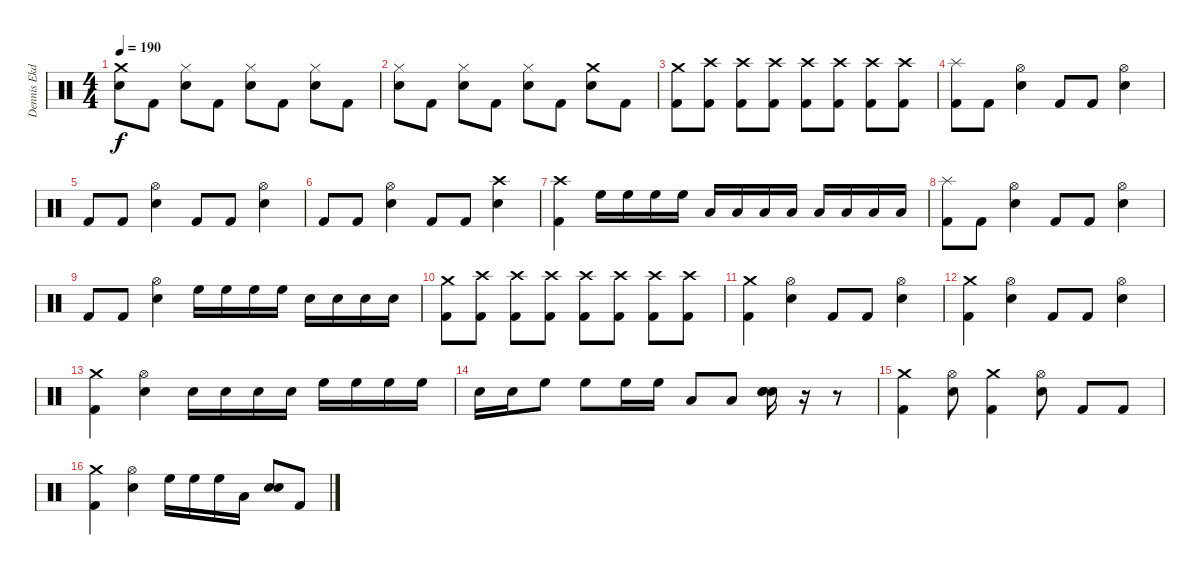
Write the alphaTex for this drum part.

\track ("Dennis Ekdahl" "Dennis Ekd") {instrument percussion}
\staff {score}
\articulation defaults
\ts (4 4)
\tempo 190
\clef neutral
\ks c
("Crash medium (hit)" "Snare (hit) 2").8{dy f} "Kick (hit) 2".8 ("Hi-Hat (closed)" "Snare (hit) 2").8 "Kick (hit) 2".8 ("Hi-Hat (closed)" "Snare (hit) 2").8 "Kick (hit) 2".8 ("Hi-Hat (closed)" "Snare (hit) 2").8 "Kick (hit) 2".8 |
("Hi-Hat (closed)" "Snare (hit) 2").8 "Kick (hit) 2".8 ("Hi-Hat (closed)" "Snare (hit) 2").8 "Kick (hit) 2".8 ("Hi-Hat (closed)" "Snare (hit) 2").8 "Kick (hit) 2".8 ("Crash medium (hit)" "Snare (hit) 2").8 "Kick (hit) 2".8 |
("Crash medium (hit)" "Kick (hit) 2").8 ("Crash high (hit)" "Kick (hit) 2").8 ("Crash high (hit)" "Kick (hit) 2").8 ("Crash high (hit)" "Kick (hit) 2").8 ("Crash high (hit)" "Kick (hit) 2").8 ("Crash high (hit)" "Kick (hit) 2").8 ("Crash high (hit)" "Kick (hit) 2").8 ("Crash high (hit)" "Kick (hit) 2").8 |
("Splash (hit)" "Kick (hit) 2").8 "Kick (hit) 2".8 ("Hi-Hat (open)" "Snare (hit) 2").4 "Kick (hit) 2".8 "Kick (hit) 2".8 ("Hi-Hat (open)" "Snare (hit) 2").4 |
"Kick (hit) 2".8 "Kick (hit) 2".8 ("Hi-Hat (open)" "Snare (hit) 2").4 "Kick (hit) 2".8 "Kick (hit) 2".8 ("Hi-Hat (open)" "Snare (hit) 2").4 |
"Kick (hit) 2".8 "Kick (hit) 2".8 ("Hi-Hat (open)" "Snare (hit) 2").4 "Kick (hit) 2".8 "Kick (hit) 2".8 ("Crash high (hit)" "Snare (hit) 2").4 |
("Crash high (hit)" "Kick (hit) 2").4 "High Floor Tom (hit)".16 "High Floor Tom (hit)".16 "High Floor Tom (hit)".16 "High Floor Tom (hit)".16 "Low Tom (hit)".16 "Low Tom (hit)".16 "Low Tom (hit)".16 "Low Tom (hit)".16 "Low Floor Tom (hit)".16 "Low Floor Tom (hit)".16 "Low Floor Tom (hit)".16 "Low Floor Tom (hit)".16 |
("Splash (hit)" "Kick (hit) 2").8 "Kick (hit) 2".8 ("Hi-Hat (open)" "Snare (hit) 2").4 "Kick (hit) 2".8 "Kick (hit) 2".8 ("Hi-Hat (open)" "Snare (hit) 2").4 |
"Kick (hit) 2".8 "Kick (hit) 2".8 ("Hi-Hat (open)" "Snare (hit) 2").4 "High Floor Tom (hit)".16 "High Floor Tom (hit)".16 "High Floor Tom (hit)".16 "High Floor Tom (hit)".16 "Snare (hit) 2".16 "Snare (hit) 2".16 "Snare (hit) 2".16 "Snare (hit) 2".16 |
("Crash medium (hit)" "Kick (hit) 2").8 ("Crash high (hit)" "Kick (hit) 2").8 ("Crash high (hit)" "Kick (hit) 2").8 ("Crash high (hit)" "Kick (hit) 2").8 ("Crash high (hit)" "Kick (hit) 2").8 ("Crash high (hit)" "Kick (hit) 2").8 ("Crash high (hit)" "Kick (hit) 2").8 ("Crash high (hit)" "Kick (hit) 2").8 |
("Crash medium (hit)" "Kick (hit) 2").4 ("Hi-Hat (open)" "Snare (hit) 2").4 "Kick (hit) 2".8 "Kick (hit) 2".8 ("Hi-Hat (open)" "Snare (hit) 2").4 |
("Crash medium (hit)" "Kick (hit) 2").4 ("Hi-Hat (open)" "Snare (hit) 2").4 "Kick (hit) 2".8 "Kick (hit) 2".8 ("Hi-Hat (open)" "Snare (hit) 2").4 |
("Crash medium (hit)" "Kick (hit) 2").4 ("Hi-Hat (open)" "Snare (hit) 2").4 "Snare (hit) 2".16 "Snare (hit) 2".16 "Snare (hit) 2".16 "Snare (hit) 2".16 "High Floor Tom (hit)".16 "High Floor Tom (hit)".16 "High Floor Tom (hit)".16 "High Floor Tom (hit)".16 |
"Snare (hit) 2".16 "Snare (hit) 2".16 "High Floor Tom (hit)".8 "High Floor Tom (hit)".8 "High Floor Tom (hit)".16 "High Floor Tom (hit)".16 "Low Tom (hit)".8 "Low Tom (hit)".8 ("Snare (hit) 2" "Snare (hit) 2" "Snare (hit) 2").16 r.16 r.8 |
("Crash medium (hit)" "Kick (hit) 2").4 ("Hi-Hat (open)" "Snare (hit) 2").8 ("Crash medium (hit)" "Kick (hit) 2").4 ("Hi-Hat (open)" "Snare (hit) 2").8 "Kick (hit) 2".8 "Kick (hit) 2".8 |
("Crash medium (hit)" "Kick (hit) 2").4 ("Hi-Hat (open)" "Snare (hit) 2").4 "High Floor Tom (hit)".16 "High Floor Tom (hit)".16 "High Floor Tom (hit)".16 "Low Tom (hit)".16 ("Snare (hit) 2" "Snare (hit) 2").8 "Kick (hit) 2".8
